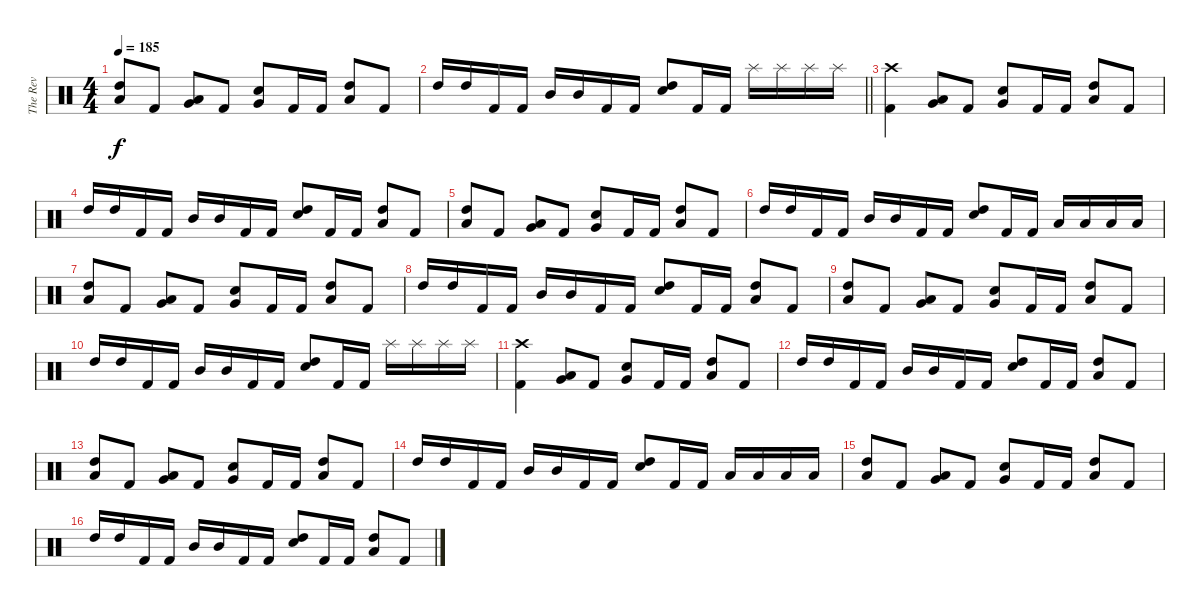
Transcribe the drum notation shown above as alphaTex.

\track ("The Rev" "The Rev") {instrument percussion}
\staff {score}
\articulation defaults
\ts (4 4)
\tempo 185
\clef neutral
\ks c
("High Tom (hit)" "Low Tom (hit)").8{dy f} "Kick (hit) 2".8 ("Low Tom (hit)" "Very Low Tom (hit)").8 "Kick (hit) 2".8 ("Very Low Tom (hit)" "Electric Snare (hit)").8 "Kick (hit) 2".16 "Kick (hit) 2".16 ("High Tom (hit)" "Low Tom (hit)").8 "Kick (hit) 2".8 |
\barLineRight lightlight "High Tom (hit)".16 "High Tom (hit)".16 "Kick (hit) 2".16 "Kick (hit) 2".16 "Mid Tom (hit)".16 "Mid Tom (hit)".16 "Kick (hit) 2".16 "Kick (hit) 2".16
("High Tom (hit)" "Electric Snare (hit)").8 "Kick (hit) 2".16 "Kick (hit) 2".16 "Splash (hit)".16 "Splash (hit)".16 "Splash (hit)".16 "Splash (hit)".16 |
("Crash high (hit)" "Kick (hit) 2").4 ("Low Tom (hit)" "Very Low Tom (hit)").8 "Kick (hit) 2".8 ("Very Low Tom (hit)" "Electric Snare (hit)").8 "Kick (hit) 2".16 "Kick (hit) 2".16 ("High Tom (hit)" "Low Tom (hit)").8 "Kick (hit) 2".8 |
"High Tom (hit)".16 "High Tom (hit)".16 "Kick (hit) 2".16 "Kick (hit) 2".16 "Mid Tom (hit)".16 "Mid Tom (hit)".16 "Kick (hit) 2".16 "Kick (hit) 2".16 ("High Tom (hit)" "Electric Snare (hit)").8 "Kick (hit) 2".16 "Kick (hit) 2".16 ("High Tom (hit)" "Low Tom (hit)").8 "Kick (hit) 2".8 |
("High Tom (hit)" "Low Tom (hit)").8 "Kick (hit) 2".8 ("Low Tom (hit)" "Very Low Tom (hit)").8 "Kick (hit) 2".8 ("Very Low Tom (hit)" "Electric Snare (hit)").8 "Kick (hit) 2".16 "Kick (hit) 2".16 ("High Tom (hit)" "Low Tom (hit)").8 "Kick (hit) 2".8 |
"High Tom (hit)".16 "High Tom (hit)".16 "Kick (hit) 2".16 "Kick (hit) 2".16 "Mid Tom (hit)".16 "Mid Tom (hit)".16 "Kick (hit) 2".16 "Kick (hit) 2".16 ("High Tom (hit)" "Electric Snare (hit)").8 "Kick (hit) 2".16 "Kick (hit) 2".16 "Low Tom (hit)".16 "Low Tom (hit)".16 "Low Tom (hit)".16 "Low Tom (hit)".16 |
("High Tom (hit)" "Low Tom (hit)").8 "Kick (hit) 2".8 ("Low Tom (hit)" "Very Low Tom (hit)").8 "Kick (hit) 2".8 ("Very Low Tom (hit)" "Electric Snare (hit)").8 "Kick (hit) 2".16 "Kick (hit) 2".16 ("High Tom (hit)" "Low Tom (hit)").8 "Kick (hit) 2".8 |
"High Tom (hit)".16 "High Tom (hit)".16 "Kick (hit) 2".16 "Kick (hit) 2".16 "Mid Tom (hit)".16 "Mid Tom (hit)".16 "Kick (hit) 2".16 "Kick (hit) 2".16 ("High Tom (hit)" "Electric Snare (hit)").8 "Kick (hit) 2".16 "Kick (hit) 2".16 ("High Tom (hit)" "Low Tom (hit)").8 "Kick (hit) 2".8 |
("High Tom (hit)" "Low Tom (hit)").8 "Kick (hit) 2".8 ("Low Tom (hit)" "Very Low Tom (hit)").8 "Kick (hit) 2".8 ("Very Low Tom (hit)" "Electric Snare (hit)").8 "Kick (hit) 2".16 "Kick (hit) 2".16 ("High Tom (hit)" "Low Tom (hit)").8 "Kick (hit) 2".8 |
"High Tom (hit)".16 "High Tom (hit)".16 "Kick (hit) 2".16 "Kick (hit) 2".16 "Mid Tom (hit)".16 "Mid Tom (hit)".16 "Kick (hit) 2".16 "Kick (hit) 2".16 ("High Tom (hit)" "Electric Snare (hit)").8 "Kick (hit) 2".16 "Kick (hit) 2".16 "Splash (hit)".16 "Splash (hit)".16 "Splash (hit)".16 "Splash (hit)".16 |
("Crash high (hit)" "Kick (hit) 2").4 ("Low Tom (hit)" "Very Low Tom (hit)").8 "Kick (hit) 2".8 ("Very Low Tom (hit)" "Electric Snare (hit)").8 "Kick (hit) 2".16 "Kick (hit) 2".16 ("High Tom (hit)" "Low Tom (hit)").8 "Kick (hit) 2".8 |
"High Tom (hit)".16 "High Tom (hit)".16 "Kick (hit) 2".16 "Kick (hit) 2".16 "Mid Tom (hit)".16 "Mid Tom (hit)".16 "Kick (hit) 2".16 "Kick (hit) 2".16 ("High Tom (hit)" "Electric Snare (hit)").8 "Kick (hit) 2".16 "Kick (hit) 2".16 ("High Tom (hit)" "Low Tom (hit)").8 "Kick (hit) 2".8 |
("High Tom (hit)" "Low Tom (hit)").8 "Kick (hit) 2".8 ("Low Tom (hit)" "Very Low Tom (hit)").8 "Kick (hit) 2".8 ("Very Low Tom (hit)" "Electric Snare (hit)").8 "Kick (hit) 2".16 "Kick (hit) 2".16 ("High Tom (hit)" "Low Tom (hit)").8 "Kick (hit) 2".8 |
"High Tom (hit)".16 "High Tom (hit)".16 "Kick (hit) 2".16 "Kick (hit) 2".16 "Mid Tom (hit)".16 "Mid Tom (hit)".16 "Kick (hit) 2".16 "Kick (hit) 2".16 ("High Tom (hit)" "Electric Snare (hit)").8 "Kick (hit) 2".16 "Kick (hit) 2".16 "Low Tom (hit)".16 "Low Tom (hit)".16 "Low Tom (hit)".16 "Low Tom (hit)".16 |
("High Tom (hit)" "Low Tom (hit)").8 "Kick (hit) 2".8 ("Low Tom (hit)" "Very Low Tom (hit)").8 "Kick (hit) 2".8 ("Very Low Tom (hit)" "Electric Snare (hit)").8 "Kick (hit) 2".16 "Kick (hit) 2".16 ("High Tom (hit)" "Low Tom (hit)").8 "Kick (hit) 2".8 |
"High Tom (hit)".16 "High Tom (hit)".16 "Kick (hit) 2".16 "Kick (hit) 2".16 "Mid Tom (hit)".16 "Mid Tom (hit)".16 "Kick (hit) 2".16 "Kick (hit) 2".16 ("High Tom (hit)" "Electric Snare (hit)").8 "Kick (hit) 2".16 "Kick (hit) 2".16 ("High Tom (hit)" "Low Tom (hit)").8 "Kick (hit) 2".8
